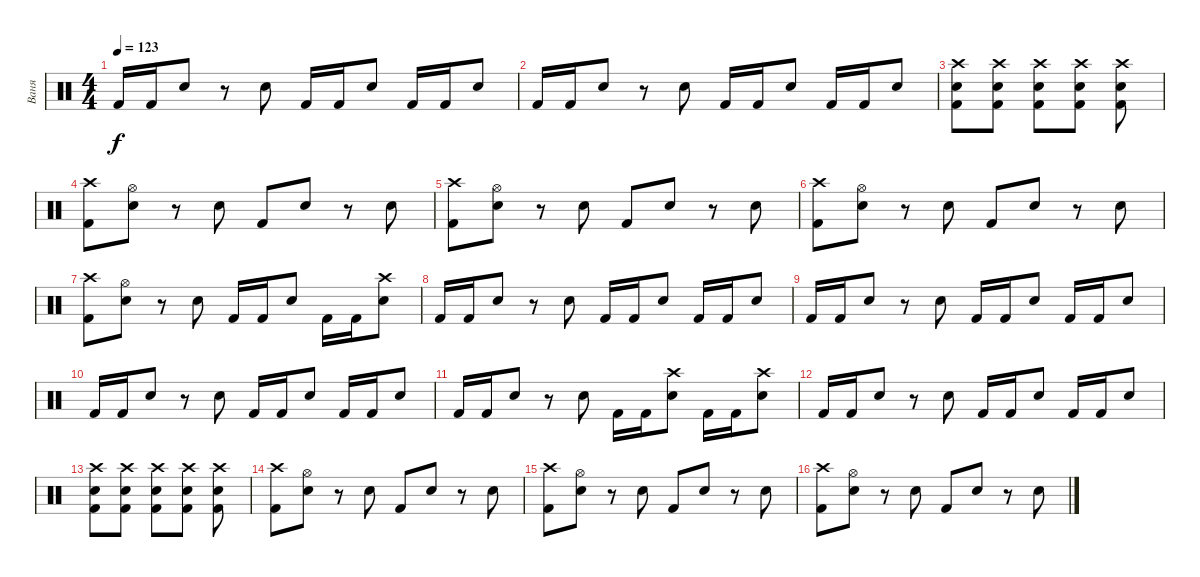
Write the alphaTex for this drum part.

\track ("Ваня" "Ваня") {instrument percussion}
\staff {score}
\articulation defaults
\ts (4 4)
\tempo 123
\clef neutral
\ks c "Kick (hit) 2".16{dy f} "Kick (hit) 2".16 "Snare (hit) 2".8
r.8 "Snare (hit) 2".8 "Kick (hit) 2".16 "Kick (hit) 2".16 "Snare (hit) 2".8 "Kick (hit) 2".16 "Kick (hit) 2".16 "Snare (hit) 2".8 |
"Kick (hit) 2".16 "Kick (hit) 2".16 "Snare (hit) 2".8 r.8 "Snare (hit) 2".8 "Kick (hit) 2".16 "Kick (hit) 2".16 "Snare (hit) 2".8 "Kick (hit) 2".16 "Kick (hit) 2".16 "Snare (hit) 2".8 |
("Crash high (hit)" "Kick (hit) 2" "Snare (hit) 2").8 ("Crash high (hit)" "Kick (hit) 2" "Snare (hit) 2").8 ("Crash high (hit)" "Kick (hit) 2" "Snare (hit) 2").8 ("Crash high (hit)" "Kick (hit) 2" "Snare (hit) 2").8 ("Crash high (hit)" "Kick (hit) 2" "Snare (hit) 2").8 |
("Crash high (hit)" "Kick (hit) 2").8 ("Hi-Hat (open)" "Snare (hit) 2").8 r.8 "Snare (hit) 2".8 "Kick (hit) 2".8 "Snare (hit) 2".8 r.8 "Snare (hit) 2".8 |
("Crash high (hit)" "Kick (hit) 2").8 ("Hi-Hat (open)" "Snare (hit) 2").8 r.8 "Snare (hit) 2".8 "Kick (hit) 2".8 "Snare (hit) 2".8 r.8 "Snare (hit) 2".8 |
("Crash high (hit)" "Kick (hit) 2").8 ("Hi-Hat (open)" "Snare (hit) 2").8 r.8 "Snare (hit) 2".8 "Kick (hit) 2".8 "Snare (hit) 2".8 r.8 "Snare (hit) 2".8 |
("Crash high (hit)" "Kick (hit) 2").8 ("Hi-Hat (open)" "Snare (hit) 2").8 r.8 "Snare (hit) 2".8 "Kick (hit) 2".16 "Kick (hit) 2".16 "Snare (hit) 2".8 "Kick (hit) 2".16 "Kick (hit) 2".16 ("Crash high (hit)" "Snare (hit) 2").8 |
"Kick (hit) 2".16 "Kick (hit) 2".16 "Snare (hit) 2".8 r.8 "Snare (hit) 2".8 "Kick (hit) 2".16 "Kick (hit) 2".16 "Snare (hit) 2".8 "Kick (hit) 2".16 "Kick (hit) 2".16 "Snare (hit) 2".8 |
"Kick (hit) 2".16 "Kick (hit) 2".16 "Snare (hit) 2".8 r.8 "Snare (hit) 2".8 "Kick (hit) 2".16 "Kick (hit) 2".16 "Snare (hit) 2".8 "Kick (hit) 2".16 "Kick (hit) 2".16 "Snare (hit) 2".8 |
"Kick (hit) 2".16 "Kick (hit) 2".16 "Snare (hit) 2".8 r.8 "Snare (hit) 2".8 "Kick (hit) 2".16 "Kick (hit) 2".16 "Snare (hit) 2".8 "Kick (hit) 2".16 "Kick (hit) 2".16 "Snare (hit) 2".8 |
"Kick (hit) 2".16 "Kick (hit) 2".16 "Snare (hit) 2".8 r.8 "Snare (hit) 2".8 "Kick (hit) 2".16 "Kick (hit) 2".16 ("Crash high (hit)" "Snare (hit) 2").8 "Kick (hit) 2".16 "Kick (hit) 2".16 ("Crash high (hit)" "Snare (hit) 2").8 |
"Kick (hit) 2".16 "Kick (hit) 2".16 "Snare (hit) 2".8 r.8 "Snare (hit) 2".8 "Kick (hit) 2".16 "Kick (hit) 2".16 "Snare (hit) 2".8 "Kick (hit) 2".16 "Kick (hit) 2".16 "Snare (hit) 2".8 |
("Crash high (hit)" "Kick (hit) 2" "Snare (hit) 2").8 ("Crash high (hit)" "Kick (hit) 2" "Snare (hit) 2").8 ("Crash high (hit)" "Kick (hit) 2" "Snare (hit) 2").8 ("Crash high (hit)" "Kick (hit) 2" "Snare (hit) 2").8 ("Crash high (hit)" "Kick (hit) 2" "Snare (hit) 2").8 |
("Crash high (hit)" "Kick (hit) 2").8 ("Hi-Hat (open)" "Snare (hit) 2").8 r.8 "Snare (hit) 2".8 "Kick (hit) 2".8 "Snare (hit) 2".8 r.8 "Snare (hit) 2".8 |
("Crash high (hit)" "Kick (hit) 2").8 ("Hi-Hat (open)" "Snare (hit) 2").8 r.8 "Snare (hit) 2".8 "Kick (hit) 2".8 "Snare (hit) 2".8 r.8 "Snare (hit) 2".8 |
("Crash high (hit)" "Kick (hit) 2").8 ("Hi-Hat (open)" "Snare (hit) 2").8 r.8 "Snare (hit) 2".8 "Kick (hit) 2".8 "Snare (hit) 2".8 r.8 "Snare (hit) 2".8
